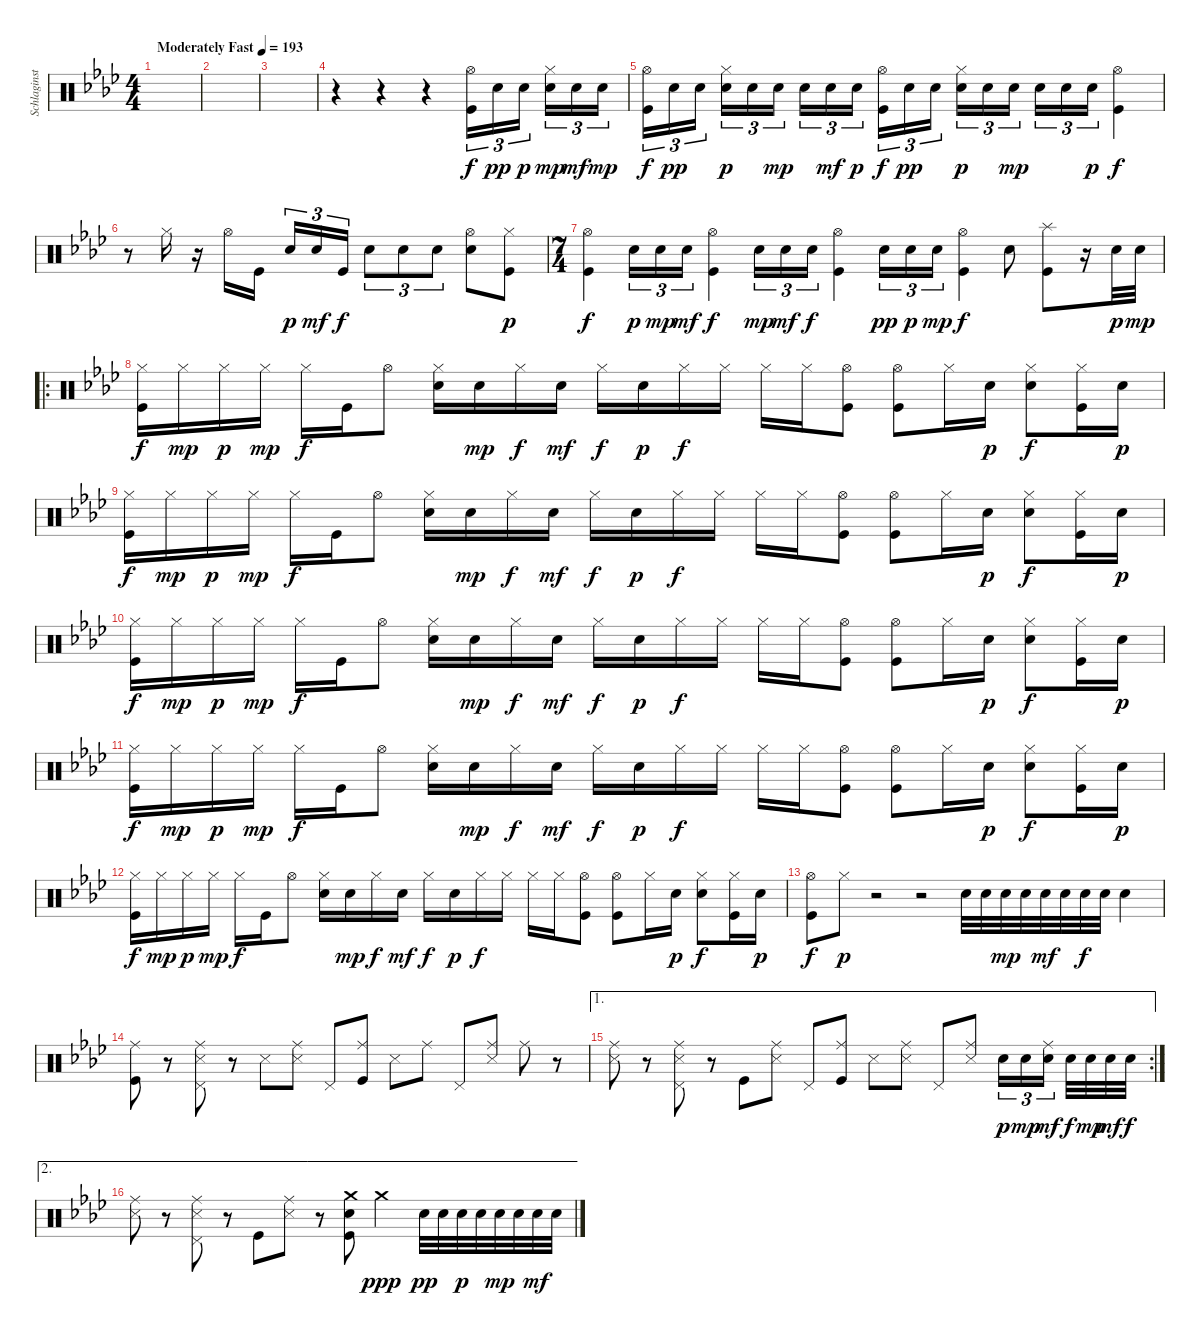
\track ("Schlaginstrumente - Auswahl" "Schlaginst") {instrument percussion}
\staff {score}
\articulation defaults
\ts (4 4)
\tempo (193 "Moderately Fast")
\clef neutral
\ks ab
|
|
|
r.4 r.4 r.4 ("Hi-Hat (open)" "Kick (hit)").16{tu (3 2)} "Snare (hit) 2".16{tu (3 2) dy pp} "Snare (hit) 2".16{tu (3 2) dy p beam splitsecondary} ("Hi-Hat (closed)" "Snare (hit) 2").16{tu (3 2) dy mp} "Snare (hit) 2".16{tu (3 2) dy mf} "Snare (hit) 2".16{tu (3 2) dy mp} |
("Hi-Hat (open)" "Kick (hit)").16{tu (3 2) dy f} "Snare (hit) 2".16{tu (3 2) dy pp} "Snare (hit) 2".16{tu (3 2) beam splitsecondary} ("Hi-Hat (closed)" "Snare (hit) 2").16{tu (3 2) dy p} "Snare (hit) 2".16{tu (3 2)} "Snare (hit) 2".16{tu (3 2) dy mp} "Snare (hit) 2".16{tu (3 2)} "Snare (hit) 2".16{tu (3 2) dy mf} "Snare (hit) 2".16{tu (3 2) dy p beam splitsecondary} ("Hi-Hat (open)" "Kick (hit)").16{tu (3 2) dy f} "Snare (hit) 2".16{tu (3 2) dy pp} "Snare (hit) 2".16{tu (3 2)} ("Hi-Hat (closed)" "Snare (hit) 2").16{tu (3 2) dy p} "Snare (hit) 2".16{tu (3 2)} "Snare (hit) 2".16{tu (3 2) dy mp beam splitsecondary} "Snare (hit) 2".16{tu (3 2)} "Snare (hit) 2".16{tu (3 2)} "Snare (hit) 2".16{tu (3 2) dy p} ("Hi-Hat (open)" "Kick (hit)").4{dy f} |
r.8 "Hi-Hat (closed)".16 r.16 "Hi-Hat (open)".16 "Kick (hit)".16{beam splitsecondary} "Snare (hit) 2".16{tu (3 2) dy p} "Snare (hit) 2".16{tu (3 2) dy mf} "Kick (hit)".16{tu (3 2) dy f} "Snare (hit) 2".8{tu (3 2)} "Snare (hit) 2".8{tu (3 2)} "Snare (hit) 2".8{tu (3 2)} ("Hi-Hat (open)" "Snare (hit) 2").8 ("Hi-Hat (closed)" "Kick (hit)").8{dy p} |
\ts (7 4)
("Hi-Hat (open)" "Kick (hit)").4{dy f} "Snare (hit) 2".16{tu (3 2) dy p} "Snare (hit) 2".16{tu (3 2) dy mp} "Snare (hit) 2".16{tu (3 2) dy mf} ("Hi-Hat (open)" "Kick (hit)").4{dy f} "Snare (hit) 2".16{tu (3 2) dy mp} "Snare (hit) 2".16{tu (3 2) dy mf} "Snare (hit) 2".16{tu (3 2) dy f} ("Hi-Hat (open)" "Kick (hit)").4 "Snare (hit) 2".16{tu (3 2) dy pp} "Snare (hit) 2".16{tu (3 2) dy p} "Snare (hit) 2".16{tu (3 2) dy mp} ("Hi-Hat (open)" "Kick (hit)").4{dy f} "Snare (hit) 2".8 ("Splash (hit)" "Kick (hit)").8 r.16 "Snare (hit) 2".32{dy p} "Snare (hit) 2".32{dy mp} |
\ro
("Hi-Hat (closed)" "Kick (hit)").16{dy f} "Hi-Hat (closed)".16{dy mp} "Hi-Hat (closed)".16{dy p} "Hi-Hat (closed)".16{dy mp} "Hi-Hat (closed)".16{dy f} "Kick (hit)".16 "Hi-Hat (open)".8 ("Hi-Hat (closed)" "Snare (hit) 2").16 "Snare (hit) 2".16{dy mp} "Hi-Hat (closed)".16{dy f} "Snare (hit) 2".16{dy mf} "Hi-Hat (closed)".16{dy f} "Snare (hit) 2".16{dy p} "Hi-Hat (closed)".16{dy f} "Hi-Hat (closed)".16 "Hi-Hat (closed)".16 "Hi-Hat (closed)".16 ("Hi-Hat (open)" "Kick (hit)").8 ("Hi-Hat (open)" "Kick (hit)").8 "Hi-Hat (closed)".16 "Snare (hit) 2".16{dy p} ("Hi-Hat (closed)" "Snare (hit) 2").8{dy f} ("Hi-Hat (closed)" "Kick (hit)").16 "Snare (hit) 2".16{dy p} |
("Hi-Hat (closed)" "Kick (hit)").16{dy f} "Hi-Hat (closed)".16{dy mp} "Hi-Hat (closed)".16{dy p} "Hi-Hat (closed)".16{dy mp} "Hi-Hat (closed)".16{dy f} "Kick (hit)".16 "Hi-Hat (open)".8 ("Hi-Hat (closed)" "Snare (hit) 2").16 "Snare (hit) 2".16{dy mp} "Hi-Hat (closed)".16{dy f} "Snare (hit) 2".16{dy mf} "Hi-Hat (closed)".16{dy f} "Snare (hit) 2".16{dy p} "Hi-Hat (closed)".16{dy f} "Hi-Hat (closed)".16 "Hi-Hat (closed)".16 "Hi-Hat (closed)".16 ("Hi-Hat (open)" "Kick (hit)").8 ("Hi-Hat (open)" "Kick (hit)").8 "Hi-Hat (closed)".16 "Snare (hit) 2".16{dy p} ("Hi-Hat (closed)" "Snare (hit) 2").8{dy f} ("Hi-Hat (closed)" "Kick (hit)").16 "Snare (hit) 2".16{dy p} |
("Hi-Hat (closed)" "Kick (hit)").16{dy f} "Hi-Hat (closed)".16{dy mp} "Hi-Hat (closed)".16{dy p} "Hi-Hat (closed)".16{dy mp} "Hi-Hat (closed)".16{dy f} "Kick (hit)".16 "Hi-Hat (open)".8 ("Hi-Hat (closed)" "Snare (hit) 2").16 "Snare (hit) 2".16{dy mp} "Hi-Hat (closed)".16{dy f} "Snare (hit) 2".16{dy mf} "Hi-Hat (closed)".16{dy f} "Snare (hit) 2".16{dy p} "Hi-Hat (closed)".16{dy f} "Hi-Hat (closed)".16 "Hi-Hat (closed)".16 "Hi-Hat (closed)".16 ("Hi-Hat (open)" "Kick (hit)").8 ("Hi-Hat (open)" "Kick (hit)").8 "Hi-Hat (closed)".16 "Snare (hit) 2".16{dy p} ("Hi-Hat (closed)" "Snare (hit) 2").8{dy f} ("Hi-Hat (closed)" "Kick (hit)").16 "Snare (hit) 2".16{dy p} |
("Hi-Hat (closed)" "Kick (hit)").16{dy f} "Hi-Hat (closed)".16{dy mp} "Hi-Hat (closed)".16{dy p} "Hi-Hat (closed)".16{dy mp} "Hi-Hat (closed)".16{dy f} "Kick (hit)".16 "Hi-Hat (open)".8 ("Hi-Hat (closed)" "Snare (hit) 2").16 "Snare (hit) 2".16{dy mp} "Hi-Hat (closed)".16{dy f} "Snare (hit) 2".16{dy mf} "Hi-Hat (closed)".16{dy f} "Snare (hit) 2".16{dy p} "Hi-Hat (closed)".16{dy f} "Hi-Hat (closed)".16 "Hi-Hat (closed)".16 "Hi-Hat (closed)".16 ("Hi-Hat (open)" "Kick (hit)").8 ("Hi-Hat (open)" "Kick (hit)").8 "Hi-Hat (closed)".16 "Snare (hit) 2".16{dy p} ("Hi-Hat (closed)" "Snare (hit) 2").8{dy f} ("Hi-Hat (closed)" "Kick (hit)").16 "Snare (hit) 2".16{dy p} |
("Hi-Hat (closed)" "Kick (hit)").16{dy f} "Hi-Hat (closed)".16{dy mp} "Hi-Hat (closed)".16{dy p} "Hi-Hat (closed)".16{dy mp} "Hi-Hat (closed)".16{dy f} "Kick (hit)".16 "Hi-Hat (open)".8 ("Hi-Hat (closed)" "Snare (hit) 2").16 "Snare (hit) 2".16{dy mp} "Hi-Hat (closed)".16{dy f} "Snare (hit) 2".16{dy mf} "Hi-Hat (closed)".16{dy f} "Snare (hit) 2".16{dy p} "Hi-Hat (closed)".16{dy f} "Hi-Hat (closed)".16 "Hi-Hat (closed)".16 "Hi-Hat (closed)".16 ("Hi-Hat (open)" "Kick (hit)").8 ("Hi-Hat (open)" "Kick (hit)").8 "Hi-Hat (closed)".16 "Snare (hit) 2".16{dy p} ("Hi-Hat (closed)" "Snare (hit) 2").8{dy f} ("Hi-Hat (closed)" "Kick (hit)").16 "Snare (hit) 2".16{dy p} |
("Hi-Hat (open)" "Kick (hit)").8{dy f} "Hi-Hat (closed)".8{dy p} r.2 r.2 "Snare (hit) 2".32 "Snare (hit) 2".32 "Snare (hit) 2".32{dy mp} "Snare (hit) 2".32 "Snare (hit) 2".32{dy mf} "Snare (hit) 2".32 "Snare (hit) 2".32{dy f} "Snare (hit) 2".32 "Snare (hit) 2".4 |
("Ride (middle)" "Kick (hit)").8 r.8 ("Ride (middle)" "Pedal Hi-Hat (hit)" "Snare (side stick) 3").8 r.8 "Snare (side stick) 3".8 ("Ride (middle)" "Snare (side stick) 3").8 "Pedal Hi-Hat (hit)".8 ("Ride (middle)" "Kick (hit)").8 "Snare (side stick) 3".8 "Ride (middle)".8 "Pedal Hi-Hat (hit)".8 ("Ride (middle)" "Snare (side stick) 3").8 "Ride (middle)".8 r.8 |
\ae 1
\rc 2
("Ride (middle)" "Snare (side stick) 3").8 r.8 ("Ride (middle)" "Pedal Hi-Hat (hit)" "Snare (side stick) 3").8 r.8 "Kick (hit)".8 ("Ride (middle)" "Snare (side stick) 3").8 "Pedal Hi-Hat (hit)".8 ("Ride (middle)" "Kick (hit)").8 "Snare (side stick) 3".8 ("Ride (middle)" "Snare (side stick) 3").8 "Pedal Hi-Hat (hit)".8 ("Ride (middle)" "Snare (side stick) 3").8 "Snare (hit) 2".16{tu (3 2) dy p} "Snare (hit) 2".16{tu (3 2) dy mp} ("Ride (middle)" "Snare (hit) 2").16{tu (3 2) dy mf beam splitsecondary} "Snare (hit) 2".32{dy f} "Snare (hit) 2".32{dy mp} "Snare (hit) 2".32{dy mf} "Snare (hit) 2".32{dy f} |
\ae 2
("Ride (middle)" "Snare (side stick) 3").8 r.8 ("Ride (middle)" "Pedal Hi-Hat (hit)" "Snare (side stick) 3").8 r.8 "Kick (hit)".8 ("Ride (middle)" "Snare (side stick) 3").8 r.8 ("Crash medium (hit)" "Snare (hit) 2" "Kick (hit)").8 "Crash medium (hit)".2{dy ppp} "Snare (hit) 2".32{dy pp} "Snare (hit) 2".32 "Snare (hit) 2".32{dy p} "Snare (hit) 2".32 "Snare (hit) 2".32{dy mp} "Snare (hit) 2".32 "Snare (hit) 2".32{dy mf} "Snare (hit) 2".32
